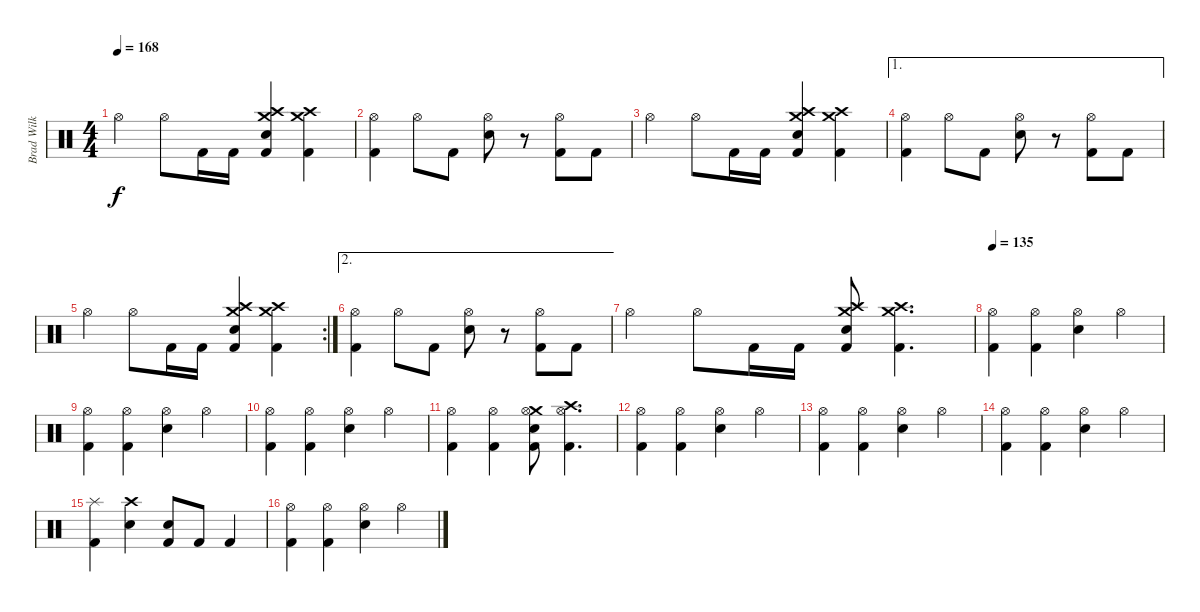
\track ("Brad Wilk" "Brad Wilk") {instrument percussion}
\staff {score}
\articulation defaults
\ts (4 4)
\tempo 168
\clef neutral
\ks c "Hi-Hat (open)".4{dy f} "Hi-Hat (open)".8 "Kick (hit) 2".16 "Kick (hit) 2".16
("Crash medium (hit)" "Crash high (hit)" "Electric Snare (hit)" "Kick (hit) 2").4 ("Crash high (hit)" "Crash medium (hit)" "Kick (hit) 2").4 |
("Hi-Hat (open)" "Kick (hit) 2").4 "Hi-Hat (open)".8 "Kick (hit) 2".8 ("Hi-Hat (open)" "Electric Snare (hit)").8 r.8 ("Hi-Hat (open)" "Kick (hit) 2").8 "Kick (hit) 2".8 |
"Hi-Hat (open)".4 "Hi-Hat (open)".8 "Kick (hit) 2".16 "Kick (hit) 2".16 ("Crash medium (hit)" "Crash high (hit)" "Electric Snare (hit)" "Kick (hit) 2").4 ("Crash high (hit)" "Crash medium (hit)" "Kick (hit) 2").4 |
\ae 1
("Hi-Hat (open)" "Kick (hit) 2").4 "Hi-Hat (open)".8 "Kick (hit) 2".8 ("Hi-Hat (open)" "Electric Snare (hit)").8 r.8 ("Hi-Hat (open)" "Kick (hit) 2").8 "Kick (hit) 2".8 |
\rc 2 "Hi-Hat (open)".4 "Hi-Hat (open)".8 "Kick (hit) 2".16 "Kick (hit) 2".16
("Crash medium (hit)" "Crash high (hit)" "Electric Snare (hit)" "Kick (hit) 2").4 ("Crash high (hit)" "Crash medium (hit)" "Kick (hit) 2").4 |
\ae 2
("Hi-Hat (open)" "Kick (hit) 2").4 "Hi-Hat (open)".8 "Kick (hit) 2".8 ("Hi-Hat (open)" "Electric Snare (hit)").8 r.8 ("Hi-Hat (open)" "Kick (hit) 2").8 "Kick (hit) 2".8 |
"Hi-Hat (open)".4 "Hi-Hat (open)".8 "Kick (hit) 2".16 "Kick (hit) 2".16 ("Crash medium (hit)" "Crash high (hit)" "Electric Snare (hit)" "Kick (hit) 2").8 ("Crash high (hit)" "Crash medium (hit)" "Kick (hit) 2").4{d} |
\tempo 135
("Hi-Hat (open)" "Kick (hit) 2").4 ("Hi-Hat (open)" "Kick (hit) 2").4 ("Hi-Hat (open)" "Electric Snare (hit)").4 "Hi-Hat (open)".4 |
("Hi-Hat (open)" "Kick (hit) 2").4 ("Hi-Hat (open)" "Kick (hit) 2").4 ("Hi-Hat (open)" "Electric Snare (hit)").4 "Hi-Hat (open)".4 |
("Hi-Hat (open)" "Kick (hit) 2").4 ("Hi-Hat (open)" "Kick (hit) 2").4 ("Hi-Hat (open)" "Electric Snare (hit)").4 "Hi-Hat (open)".4 |
("Hi-Hat (open)" "Kick (hit) 2").4 ("Hi-Hat (open)" "Kick (hit) 2").4 ("Crash medium (hit)" "Hi-Hat (open)" "Electric Snare (hit)" "Kick (hit) 2").8 ("Crash high (hit)" "Hi-Hat (open)" "Kick (hit) 2").4{d} |
("Hi-Hat (open)" "Kick (hit) 2").4 ("Hi-Hat (open)" "Kick (hit) 2").4 ("Hi-Hat (open)" "Electric Snare (hit)").4 "Hi-Hat (open)".4 |
("Hi-Hat (open)" "Kick (hit) 2").4 ("Hi-Hat (open)" "Kick (hit) 2").4 ("Hi-Hat (open)" "Electric Snare (hit)").4 "Hi-Hat (open)".4 |
("Hi-Hat (open)" "Kick (hit) 2").4 ("Hi-Hat (open)" "Kick (hit) 2").4 ("Hi-Hat (open)" "Electric Snare (hit)").4 "Hi-Hat (open)".4 |
("Splash (hit)" "Kick (hit) 2").4 ("Crash high (hit)" "Electric Snare (hit)").4 ("Electric Snare (hit)" "Kick (hit) 2").8 "Kick (hit) 2".8 "Kick (hit) 2".4 |
("Hi-Hat (open)" "Kick (hit) 2").4 ("Hi-Hat (open)" "Kick (hit) 2").4 ("Hi-Hat (open)" "Electric Snare (hit)").4 "Hi-Hat (open)".4
